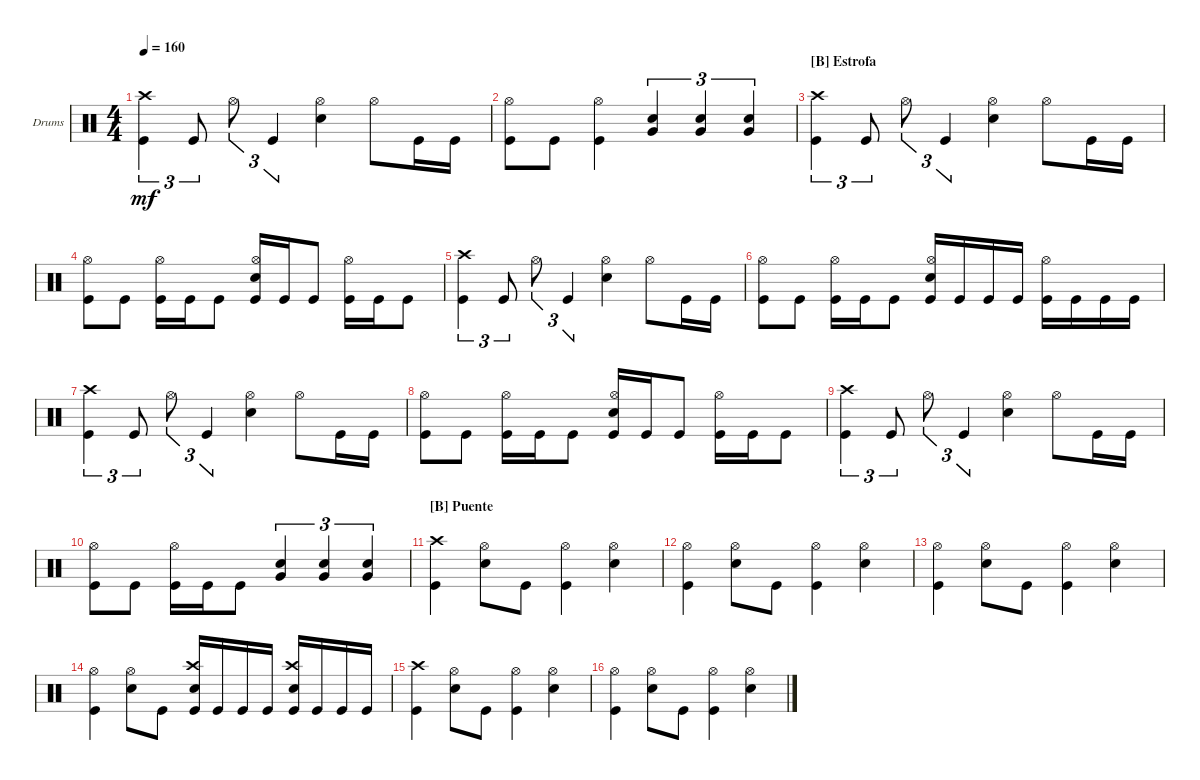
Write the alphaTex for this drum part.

\bracketExtendMode groupsimilarinstruments
\firstSystemTrackNameOrientation horizontal
\otherSystemsTrackNameOrientation horizontal
\track ("Nick Augusto" "Drums") {instrument percussion}
\staff {score}
\articulation defaults
\ts (4 4)
\tempo 160
\clef neutral
\ks c
("Kick (hit)" "Crash high (hit)").4{tu (3 2) dy mf} "Kick (hit)".8{tu (3 2)} "Hi-Hat (open)".8{tu (3 2)} "Kick (hit)".4{tu (3 2)} ("Snare (hit) 2" "Hi-Hat (open)").4 "Hi-Hat (open)".8 "Kick (hit)".16 "Kick (hit)".16 |
("Hi-Hat (open)" "Kick (hit)").8 "Kick (hit)".8 ("Kick (hit)" "Hi-Hat (open)").4 ("Snare (hit) 2" "Very Low Tom (hit)").4{tu (3 2)} ("Snare (hit) 2" "Very Low Tom (hit)").4{tu (3 2)} ("Snare (hit) 2" "Very Low Tom (hit)").4{tu (3 2)} |
\section ("B" "Estrofa")
("Kick (hit)" "Crash high (hit)").4{tu (3 2)} "Kick (hit)".8{tu (3 2)} "Hi-Hat (open)".8{tu (3 2)} "Kick (hit)".4{tu (3 2)} ("Snare (hit) 2" "Hi-Hat (open)").4 "Hi-Hat (open)".8 "Kick (hit)".16 "Kick (hit)".16 |
("Hi-Hat (open)" "Kick (hit)").8 "Kick (hit)".8 ("Kick (hit)" "Hi-Hat (open)").16 "Kick (hit)".16 "Kick (hit)".8 ("Kick (hit)" "Snare (hit) 2" "Hi-Hat (open)").16 "Kick (hit)".16 "Kick (hit)".8 ("Kick (hit)" "Hi-Hat (open)").16 "Kick (hit)".16 "Kick (hit)".8 |
("Kick (hit)" "Crash high (hit)").4{tu (3 2)} "Kick (hit)".8{tu (3 2)} "Hi-Hat (open)".8{tu (3 2)} "Kick (hit)".4{tu (3 2)} ("Snare (hit) 2" "Hi-Hat (open)").4 "Hi-Hat (open)".8 "Kick (hit)".16 "Kick (hit)".16 |
("Hi-Hat (open)" "Kick (hit)").8 "Kick (hit)".8 ("Kick (hit)" "Hi-Hat (open)").16 "Kick (hit)".16 "Kick (hit)".8 ("Kick (hit)" "Snare (hit) 2" "Hi-Hat (open)").16 "Kick (hit)".16 "Kick (hit)".16 "Kick (hit)".16 ("Kick (hit)" "Hi-Hat (open)").16 "Kick (hit)".16 "Kick (hit)".16 "Kick (hit)".16 |
("Kick (hit)" "Crash high (hit)").4{tu (3 2)} "Kick (hit)".8{tu (3 2)} "Hi-Hat (open)".8{tu (3 2)} "Kick (hit)".4{tu (3 2)} ("Snare (hit) 2" "Hi-Hat (open)").4 "Hi-Hat (open)".8 "Kick (hit)".16 "Kick (hit)".16 |
("Hi-Hat (open)" "Kick (hit)").8 "Kick (hit)".8 ("Kick (hit)" "Hi-Hat (open)").16 "Kick (hit)".16 "Kick (hit)".8 ("Kick (hit)" "Snare (hit) 2" "Hi-Hat (open)").16 "Kick (hit)".16 "Kick (hit)".8 ("Kick (hit)" "Hi-Hat (open)").16 "Kick (hit)".16 "Kick (hit)".8 |
("Kick (hit)" "Crash high (hit)").4{tu (3 2)} "Kick (hit)".8{tu (3 2)} "Hi-Hat (open)".8{tu (3 2)} "Kick (hit)".4{tu (3 2)} ("Snare (hit) 2" "Hi-Hat (open)").4 "Hi-Hat (open)".8 "Kick (hit)".16 "Kick (hit)".16 |
("Hi-Hat (open)" "Kick (hit)").8 "Kick (hit)".8 ("Kick (hit)" "Hi-Hat (open)").16 "Kick (hit)".16 "Kick (hit)".8 ("Snare (hit) 2" "Very Low Tom (hit)").4{tu (3 2)} ("Snare (hit) 2" "Very Low Tom (hit)").4{tu (3 2)} ("Snare (hit) 2" "Very Low Tom (hit)").4{tu (3 2)} |
\section ("B" "Puente")
("Kick (hit)" "Crash high (hit)").4 ("Snare (hit) 2" "Hi-Hat (open)").8 "Kick (hit)".8 ("Kick (hit)" "Hi-Hat (open)").4 ("Snare (hit) 2" "Hi-Hat (open)").4 |
("Kick (hit)" "Hi-Hat (open)").4 ("Snare (hit) 2" "Hi-Hat (open)").8 "Kick (hit)".8 ("Kick (hit)" "Hi-Hat (open)").4 ("Snare (hit) 2" "Hi-Hat (open)").4 |
("Kick (hit)" "Hi-Hat (open)").4 ("Snare (hit) 2" "Hi-Hat (open)").8 "Kick (hit)".8 ("Kick (hit)" "Hi-Hat (open)").4 ("Snare (hit) 2" "Hi-Hat (open)").4 |
("Kick (hit)" "Hi-Hat (open)").4 ("Snare (hit) 2" "Hi-Hat (open)").8 "Kick (hit)".8 ("Kick (hit)" "Crash high (hit)" "Snare (hit) 2").16 "Kick (hit)".16 "Kick (hit)".16 "Kick (hit)".16 ("Kick (hit)" "Crash high (hit)" "Snare (hit) 2").16 "Kick (hit)".16 "Kick (hit)".16 "Kick (hit)".16 |
("Kick (hit)" "Crash high (hit)").4 ("Snare (hit) 2" "Hi-Hat (open)").8 "Kick (hit)".8 ("Kick (hit)" "Hi-Hat (open)").4 ("Snare (hit) 2" "Hi-Hat (open)").4 |
("Kick (hit)" "Hi-Hat (open)").4 ("Snare (hit) 2" "Hi-Hat (open)").8 "Kick (hit)".8 ("Kick (hit)" "Hi-Hat (open)").4 ("Snare (hit) 2" "Hi-Hat (open)").4
